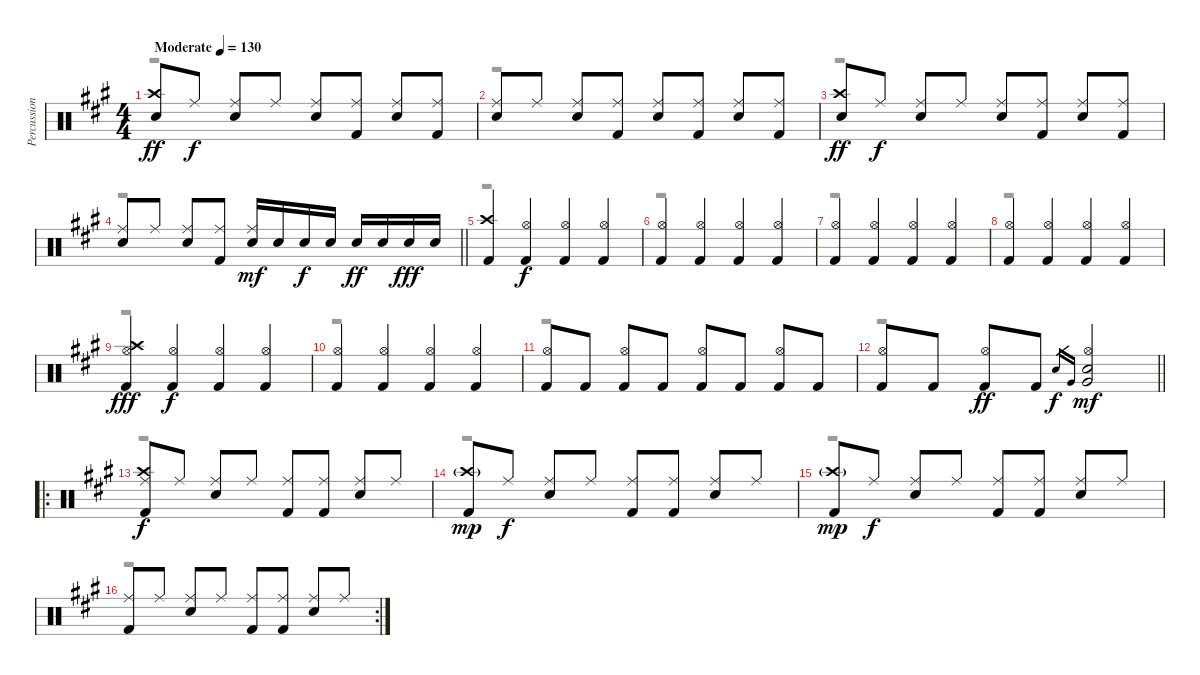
\track ("Percussion" "Percussion") {instrument percussion}
\staff {score}
\articulation defaults
\voice
\ts (4 4)
\tempo (130 "Moderate")
\clef neutral
\ks a
("Crash high (hit)" "Electric Snare (hit)").8{dy ff} "Ride (middle)".8{dy f} ("Ride (middle)" "Electric Snare (hit)").8 "Ride (middle)".8 ("Ride (middle)" "Electric Snare (hit)").8 ("Ride (middle)" "Kick (hit) 2").8 ("Ride (middle)" "Electric Snare (hit)").8 ("Ride (middle)" "Kick (hit) 2").8 |
("Ride (middle)" "Electric Snare (hit)").8 "Ride (middle)".8 ("Ride (middle)" "Electric Snare (hit)").8 ("Ride (middle)" "Kick (hit) 2").8 ("Ride (middle)" "Electric Snare (hit)").8 ("Ride (middle)" "Kick (hit) 2").8 ("Ride (middle)" "Electric Snare (hit)").8 ("Ride (middle)" "Kick (hit) 2").8 |
("Crash high (hit)" "Electric Snare (hit)").8{dy ff} "Ride (middle)".8{dy f} ("Ride (middle)" "Electric Snare (hit)").8 "Ride (middle)".8 ("Ride (middle)" "Electric Snare (hit)").8 ("Ride (middle)" "Kick (hit) 2").8 ("Ride (middle)" "Electric Snare (hit)").8 ("Ride (middle)" "Kick (hit) 2").8 |
\barLineRight lightlight
("Ride (middle)" "Electric Snare (hit)").8 "Ride (middle)".8 ("Ride (middle)" "Electric Snare (hit)").8 ("Ride (middle)" "Kick (hit) 2").8 ("Ride (middle)" "Electric Snare (hit)").16{dy mf} "Electric Snare (hit)".16 "Electric Snare (hit)".16{dy f} "Electric Snare (hit)".16 "Electric Snare (hit)".16{dy ff} "Electric Snare (hit)".16 "Electric Snare (hit)".16{dy fff} "Electric Snare (hit)".16 |
("Crash high (hit)" "Kick (hit) 2").4 ("Hi-Hat (open)" "Kick (hit) 2").4{dy f} ("Hi-Hat (open)" "Kick (hit) 2").4 ("Hi-Hat (open)" "Kick (hit) 2").4 |
("Hi-Hat (open)" "Kick (hit) 2").4 ("Hi-Hat (open)" "Kick (hit) 2").4 ("Hi-Hat (open)" "Kick (hit) 2").4 ("Hi-Hat (open)" "Kick (hit) 2").4 |
("Hi-Hat (open)" "Kick (hit) 2").4 ("Hi-Hat (open)" "Kick (hit) 2").4 ("Hi-Hat (open)" "Kick (hit) 2").4 ("Hi-Hat (open)" "Kick (hit) 2").4 |
("Hi-Hat (open)" "Kick (hit) 2").4 ("Hi-Hat (open)" "Kick (hit) 2").4 ("Hi-Hat (open)" "Kick (hit) 2").4 ("Hi-Hat (open)" "Kick (hit) 2").4 |
("Crash high (hit)" "Hi-Hat (open)" "Kick (hit) 2").4{dy fff} ("Hi-Hat (open)" "Kick (hit) 2").4{dy f} ("Hi-Hat (open)" "Kick (hit) 2").4 ("Hi-Hat (open)" "Kick (hit) 2").4 |
("Hi-Hat (open)" "Kick (hit) 2").4 ("Hi-Hat (open)" "Kick (hit) 2").4 ("Hi-Hat (open)" "Kick (hit) 2").4 ("Hi-Hat (open)" "Kick (hit) 2").4 |
("Hi-Hat (open)" "Kick (hit) 2").8 "Kick (hit) 2".8 ("Hi-Hat (open)" "Kick (hit) 2").8 "Kick (hit) 2".8 ("Hi-Hat (open)" "Kick (hit) 2").8 "Kick (hit) 2".8 ("Hi-Hat (open)" "Kick (hit) 2").8 "Kick (hit) 2".8 |
\barLineRight lightlight
("Hi-Hat (open)" "Kick (hit) 2").8 "Kick (hit) 2".8 ("Hi-Hat (open)" "Kick (hit) 2").8{dy ff} "Kick (hit) 2".8 "Electric Snare (hit)".16{gr dy f} "Very Low Tom (hit)".16{gr} ("Hi-Hat (open)" "Electric Snare (hit)" "Very Low Tom (hit)").2{dy mf} |
\ro
("Crash high (hit)" "Ride (middle)" "Kick (hit) 2").8{dy f} "Ride (middle)".8 ("Ride (middle)" "Electric Snare (hit)").8 "Ride (middle)".8 ("Ride (middle)" "Kick (hit) 2").8 ("Ride (middle)" "Kick (hit) 2").8 ("Ride (middle)" "Electric Snare (hit)").8 "Ride (middle)".8 |
("Crash high (hit)"{g} "Kick (hit) 2").8{dy mp} "Ride (middle)".8{dy f} ("Ride (middle)" "Electric Snare (hit)").8 "Ride (middle)".8 ("Ride (middle)" "Kick (hit) 2").8 ("Ride (middle)" "Kick (hit) 2").8 ("Ride (middle)" "Electric Snare (hit)").8 "Ride (middle)".8 |
("Crash high (hit)"{g} "Kick (hit) 2").8{dy mp} "Ride (middle)".8{dy f} ("Ride (middle)" "Electric Snare (hit)").8 "Ride (middle)".8 ("Ride (middle)" "Kick (hit) 2").8 ("Ride (middle)" "Kick (hit) 2").8 ("Ride (middle)" "Electric Snare (hit)").8 "Ride (middle)".8 |
\rc 2
("Ride (middle)" "Kick (hit) 2").8 "Ride (middle)".8 ("Ride (middle)" "Electric Snare (hit)").8 "Ride (middle)".8 ("Ride (middle)" "Kick (hit) 2").8 ("Ride (middle)" "Kick (hit) 2").8 ("Ride (middle)" "Electric Snare (hit)").8 "Ride (middle)".8
\voice
\clef neutral
\ottava regular
\simile none
\ks a
r.1{dy f} |
r.1 |
r.1 |
\barLineRight lightlight
r.1 |
r.1 |
r.1 |
r.1 |
r.1 |
r.1 |
r.1 |
r.1 |
\barLineRight lightlight
r.1 |
r.1 |
r.1 |
r.1 |
r.1
